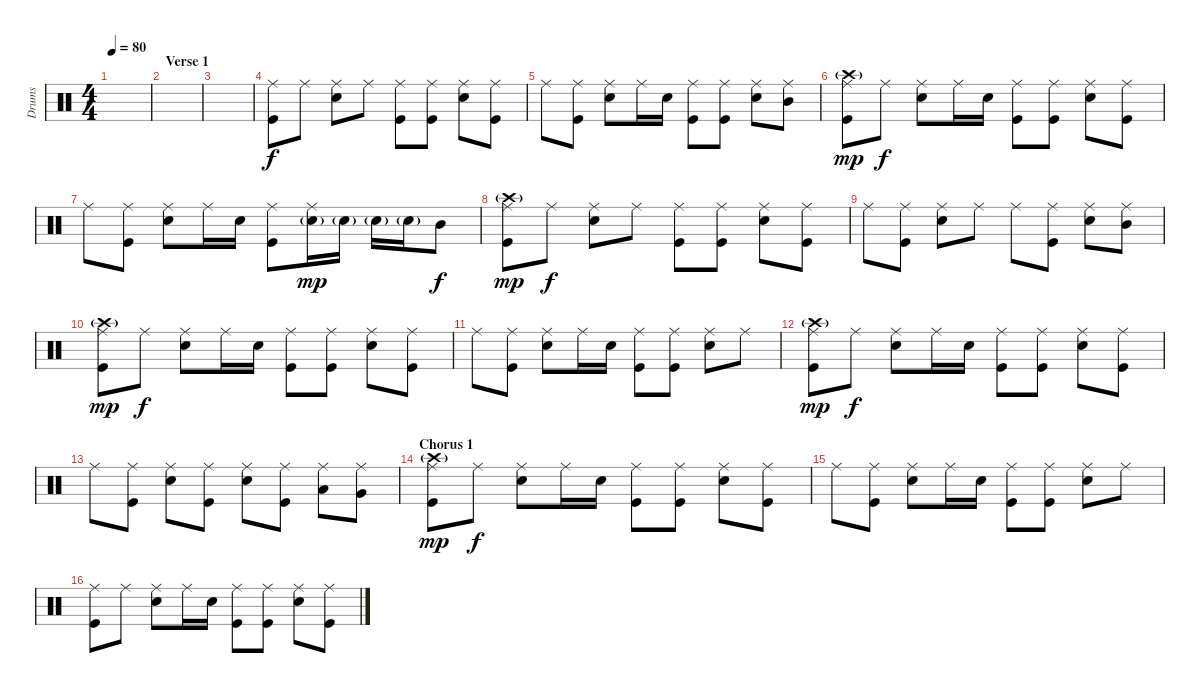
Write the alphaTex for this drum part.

\track ("Drums" "Drums") {instrument percussion}
\staff {score}
\articulation defaults
\ts (4 4)
\tempo 80
\clef neutral
\ks c
|
\section ("" "Verse 1")
|
|
("Ride (middle)" "Kick (hit)").8 "Ride (middle)".8 ("Ride (middle)" "Snare (hit) 2").8 "Ride (middle)".8 ("Ride (middle)" "Kick (hit)").8 ("Ride (middle)" "Kick (hit)").8 ("Ride (middle)" "Snare (hit) 2").8 ("Ride (middle)" "Kick (hit)").8 |
"Ride (middle)".8 ("Ride (middle)" "Kick (hit)").8 ("Ride (middle)" "Snare (hit) 2").8 "Ride (middle)".16 "Snare (hit) 2".16 ("Ride (middle)" "Kick (hit)").8 ("Ride (middle)" "Kick (hit)").8 ("Ride (middle)" "Snare (hit) 2").8 ("Ride (middle)" "Mid Tom (hit)").8 |
("Ride (middle)" "Crash high (hit)"{g} "Kick (hit)").8{dy mp} "Ride (middle)".8{dy f} ("Ride (middle)" "Snare (hit) 2").8 "Ride (middle)".16 "Snare (hit) 2".16 ("Ride (middle)" "Kick (hit)").8 ("Ride (middle)" "Kick (hit)").8 ("Ride (middle)" "Snare (hit) 2").8 ("Ride (middle)" "Kick (hit)").8 |
"Ride (middle)".8 ("Ride (middle)" "Kick (hit)").8 ("Ride (middle)" "Snare (hit) 2").8 "Ride (middle)".16 "Snare (hit) 2".16 ("Ride (middle)" "Kick (hit)").8 ("Ride (middle)" "Snare (hit) 2"{g}).16{dy mp} "Snare (hit) 2"{g}.16 "Snare (hit) 2"{g}.16 "Snare (hit) 2"{g}.16 "Mid Tom (hit)".8{dy f} |
("Ride (middle)" "Crash high (hit)"{g} "Kick (hit)").8{dy mp} "Ride (middle)".8{dy f} ("Ride (middle)" "Snare (hit) 2").8 "Ride (middle)".8 ("Ride (middle)" "Kick (hit)").8 ("Ride (middle)" "Kick (hit)").8 ("Ride (middle)" "Snare (hit) 2").8 ("Ride (middle)" "Kick (hit)").8 |
"Ride (middle)".8 ("Ride (middle)" "Kick (hit)").8 ("Ride (middle)" "Snare (hit) 2").8 "Ride (middle)".8 "Ride (middle)".8 ("Ride (middle)" "Kick (hit)").8 ("Ride (middle)" "Snare (hit) 2").8 ("Ride (middle)" "Mid Tom (hit)").8 |
\section ("" "")
("Ride (middle)" "Crash high (hit)"{g} "Kick (hit)").8{dy mp} "Ride (middle)".8{dy f} ("Ride (middle)" "Snare (hit) 2").8 "Ride (middle)".16 "Snare (hit) 2".16 ("Ride (middle)" "Kick (hit)").8 ("Ride (middle)" "Kick (hit)").8 ("Ride (middle)" "Snare (hit) 2").8 ("Ride (middle)" "Kick (hit)").8 |
"Ride (middle)".8 ("Ride (middle)" "Kick (hit)").8 ("Ride (middle)" "Snare (hit) 2").8 "Ride (middle)".16 "Snare (hit) 2".16 ("Ride (middle)" "Kick (hit)").8 ("Ride (middle)" "Kick (hit)").8 ("Ride (middle)" "Snare (hit) 2").8 "Ride (middle)".8 |
("Ride (middle)" "Crash high (hit)"{g} "Kick (hit)").8{dy mp} "Ride (middle)".8{dy f} ("Ride (middle)" "Snare (hit) 2").8 "Ride (middle)".16 "Snare (hit) 2".16 ("Ride (middle)" "Kick (hit)").8 ("Ride (middle)" "Kick (hit)").8 ("Ride (middle)" "Snare (hit) 2").8 ("Ride (middle)" "Kick (hit)").8 |
"Ride (middle)".8 ("Ride (middle)" "Kick (hit)").8 ("Ride (middle)" "Snare (hit) 2").8 ("Ride (middle)" "Kick (hit)").8 ("Ride (middle)" "Snare (hit) 2").8 ("Ride (middle)" "Kick (hit)").8 ("Ride (middle)" "Low Tom (hit)").8 ("Ride (middle)" "Very Low Tom (hit)").8 |
\section ("" "Chorus 1")
("Ride (middle)" "Crash high (hit)"{g} "Kick (hit)").8{dy mp} "Ride (middle)".8{dy f} ("Ride (middle)" "Snare (hit) 2").8 "Ride (middle)".16 "Snare (hit) 2".16 ("Ride (middle)" "Kick (hit)").8 ("Ride (middle)" "Kick (hit)").8 ("Ride (middle)" "Snare (hit) 2").8 ("Ride (middle)" "Kick (hit)").8 |
"Ride (middle)".8 ("Ride (middle)" "Kick (hit)").8 ("Ride (middle)" "Snare (hit) 2").8 "Ride (middle)".16 "Snare (hit) 2".16 ("Ride (middle)" "Kick (hit)").8 ("Ride (middle)" "Kick (hit)").8 ("Ride (middle)" "Snare (hit) 2").8 "Ride (middle)".8 |
("Ride (middle)" "Kick (hit)").8 "Ride (middle)".8 ("Ride (middle)" "Snare (hit) 2").8 "Ride (middle)".16 "Snare (hit) 2".16 ("Ride (middle)" "Kick (hit)").8 ("Ride (middle)" "Kick (hit)").8 ("Ride (middle)" "Snare (hit) 2").8 ("Ride (middle)" "Kick (hit)").8
